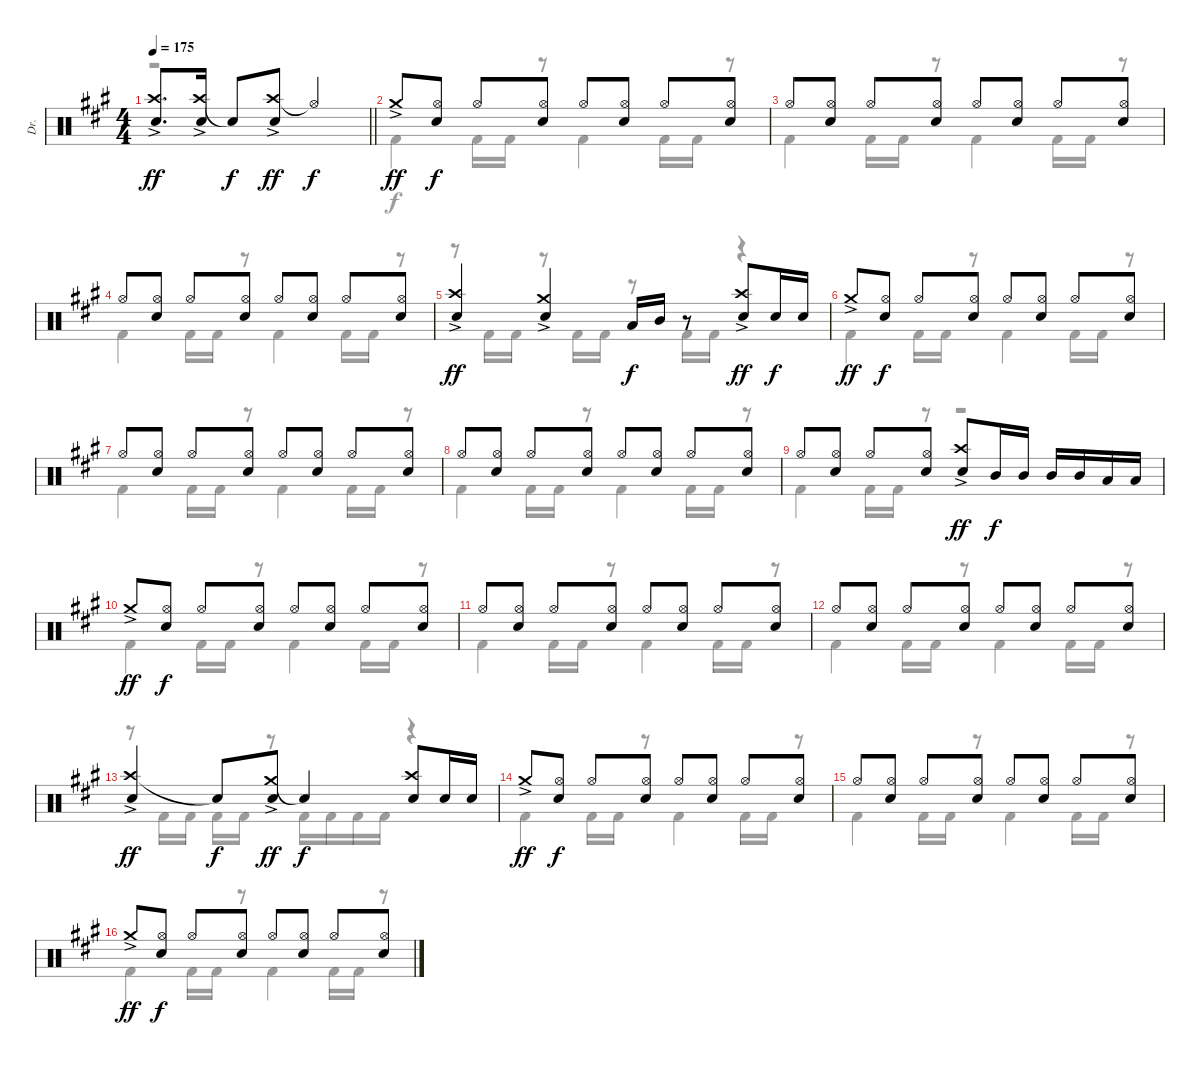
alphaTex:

\track ("Dr." "Dr.") {instrument percussion}
\staff {score}
\articulation defaults
\voice
\ts (4 4)
\tempo 175
\clef neutral
\barLineRight lightlight
\ks f#minor
("Crash high (hit)"{ac} "Electric Snare (hit)").8{d dy ff} ("Crash high (hit)"{ac} "Electric Snare (hit)").16 "Snare (hit)"{t}.8{dy f} ("Crash high (hit)"{ac} "Electric Snare (hit)").8{dy ff} "Hi-Hat (open)"{t}.2{dy f} |
"Crash medium (hit)"{ac}.8{dy ff} ("Hi-Hat (open)" "Electric Snare (hit)").8{dy f} "Hi-Hat (open)".8 ("Hi-Hat (open)" "Electric Snare (hit)").8 "Hi-Hat (open)".8 ("Hi-Hat (open)" "Electric Snare (hit)").8 "Hi-Hat (open)".8 ("Hi-Hat (open)" "Electric Snare (hit)").8 |
"Hi-Hat (open)".8 ("Hi-Hat (open)" "Electric Snare (hit)").8 "Hi-Hat (open)".8 ("Hi-Hat (open)" "Electric Snare (hit)").8 "Hi-Hat (open)".8 ("Hi-Hat (open)" "Electric Snare (hit)").8 "Hi-Hat (open)".8 ("Hi-Hat (open)" "Electric Snare (hit)").8 |
"Hi-Hat (open)".8 ("Hi-Hat (open)" "Electric Snare (hit)").8 "Hi-Hat (open)".8 ("Hi-Hat (open)" "Electric Snare (hit)").8 "Hi-Hat (open)".8 ("Hi-Hat (open)" "Electric Snare (hit)").8 "Hi-Hat (open)".8 ("Hi-Hat (open)" "Electric Snare (hit)").8 |
("Crash high (hit)"{ac} "Electric Snare (hit)").4{dy ff} ("Crash medium (hit)"{ac} "Electric Snare (hit)").4 "Low Tom (hit)".16{dy f} "Mid Tom (hit)".16 r.8 ("Crash high (hit)"{ac} "Electric Snare (hit)").8{dy ff} "Electric Snare (hit)".16{dy f} "Electric Snare (hit)".16 |
"Crash medium (hit)"{ac}.8{dy ff} ("Hi-Hat (open)" "Electric Snare (hit)").8{dy f} "Hi-Hat (open)".8 ("Hi-Hat (open)" "Electric Snare (hit)").8 "Hi-Hat (open)".8 ("Hi-Hat (open)" "Electric Snare (hit)").8 "Hi-Hat (open)".8 ("Hi-Hat (open)" "Electric Snare (hit)").8 |
"Hi-Hat (open)".8 ("Hi-Hat (open)" "Electric Snare (hit)").8 "Hi-Hat (open)".8 ("Hi-Hat (open)" "Electric Snare (hit)").8 "Hi-Hat (open)".8 ("Hi-Hat (open)" "Electric Snare (hit)").8 "Hi-Hat (open)".8 ("Hi-Hat (open)" "Electric Snare (hit)").8 |
"Hi-Hat (open)".8 ("Hi-Hat (open)" "Electric Snare (hit)").8 "Hi-Hat (open)".8 ("Hi-Hat (open)" "Electric Snare (hit)").8 "Hi-Hat (open)".8 ("Hi-Hat (open)" "Electric Snare (hit)").8 "Hi-Hat (open)".8 ("Hi-Hat (open)" "Electric Snare (hit)").8 |
"Hi-Hat (open)".8 ("Hi-Hat (open)" "Electric Snare (hit)").8 "Hi-Hat (open)".8 ("Hi-Hat (open)" "Electric Snare (hit)").8 ("Crash high (hit)"{ac} "Electric Snare (hit)").8{dy ff} "Mid Tom (hit)".16{dy f} "Mid Tom (hit)".16 "Mid Tom (hit)".16 "Mid Tom (hit)".16 "Low Tom (hit)".16 "Low Tom (hit)".16 |
"Crash medium (hit)"{ac}.8{dy ff} ("Hi-Hat (open)" "Electric Snare (hit)").8{dy f} "Hi-Hat (open)".8 ("Hi-Hat (open)" "Electric Snare (hit)").8 "Hi-Hat (open)".8 ("Hi-Hat (open)" "Electric Snare (hit)").8 "Hi-Hat (open)".8 ("Hi-Hat (open)" "Electric Snare (hit)").8 |
"Hi-Hat (open)".8 ("Hi-Hat (open)" "Electric Snare (hit)").8 "Hi-Hat (open)".8 ("Hi-Hat (open)" "Electric Snare (hit)").8 "Hi-Hat (open)".8 ("Hi-Hat (open)" "Electric Snare (hit)").8 "Hi-Hat (open)".8 ("Hi-Hat (open)" "Electric Snare (hit)").8 |
"Hi-Hat (open)".8 ("Hi-Hat (open)" "Electric Snare (hit)").8 "Hi-Hat (open)".8 ("Hi-Hat (open)" "Electric Snare (hit)").8 "Hi-Hat (open)".8 ("Hi-Hat (open)" "Electric Snare (hit)").8 "Hi-Hat (open)".8 ("Hi-Hat (open)" "Electric Snare (hit)").8 |
("Crash high (hit)"{ac} "Electric Snare (hit)").4{dy ff} "Snare (hit)"{t}.8{dy f} ("Crash medium (hit)"{ac} "Electric Snare (hit)").8{dy ff} "Snare (hit)"{t}.4{dy f} ("Crash high (hit)" "Electric Snare (hit)").8 "Electric Snare (hit)".16 "Electric Snare (hit)".16 |
"Crash medium (hit)"{ac}.8{dy ff} ("Hi-Hat (open)" "Electric Snare (hit)").8{dy f} "Hi-Hat (open)".8 ("Hi-Hat (open)" "Electric Snare (hit)").8 "Hi-Hat (open)".8 ("Hi-Hat (open)" "Electric Snare (hit)").8 "Hi-Hat (open)".8 ("Hi-Hat (open)" "Electric Snare (hit)").8 |
"Hi-Hat (open)".8 ("Hi-Hat (open)" "Electric Snare (hit)").8 "Hi-Hat (open)".8 ("Hi-Hat (open)" "Electric Snare (hit)").8 "Hi-Hat (open)".8 ("Hi-Hat (open)" "Electric Snare (hit)").8 "Hi-Hat (open)".8 ("Hi-Hat (open)" "Electric Snare (hit)").8 |
"Crash medium (hit)"{ac}.8{dy ff} ("Hi-Hat (open)" "Electric Snare (hit)").8{dy f} "Hi-Hat (open)".8 ("Hi-Hat (open)" "Electric Snare (hit)").8 "Hi-Hat (open)".8 ("Hi-Hat (open)" "Electric Snare (hit)").8 "Hi-Hat (open)".8 ("Hi-Hat (open)" "Electric Snare (hit)").8
\voice
\clef neutral
\ottava regular
\simile none
\barLineRight lightlight
\ks f#minor
r.1{dy f} |
"Kick (hit) 2".4 "Kick (hit) 2".16 "Kick (hit) 2".16 r.8 "Kick (hit) 2".4 "Kick (hit) 2".16 "Kick (hit) 2".16 r.8 |
"Kick (hit) 2".4 "Kick (hit) 2".16 "Kick (hit) 2".16 r.8 "Kick (hit) 2".4 "Kick (hit) 2".16 "Kick (hit) 2".16 r.8 |
"Kick (hit) 2".4 "Kick (hit) 2".16 "Kick (hit) 2".16 r.8 "Kick (hit) 2".4 "Kick (hit) 2".16 "Kick (hit) 2".16 r.8 |
r.8 "Kick (hit) 2".16 "Kick (hit) 2".16 r.8 "Kick (hit) 2".16 "Kick (hit) 2".16 r.8 "Kick (hit) 2".16 "Kick (hit) 2".16 r.4 |
"Kick (hit) 2".4 "Kick (hit) 2".16 "Kick (hit) 2".16 r.8 "Kick (hit) 2".4 "Kick (hit) 2".16 "Kick (hit) 2".16 r.8 |
"Kick (hit) 2".4 "Kick (hit) 2".16 "Kick (hit) 2".16 r.8 "Kick (hit) 2".4 "Kick (hit) 2".16 "Kick (hit) 2".16 r.8 |
"Kick (hit) 2".4 "Kick (hit) 2".16 "Kick (hit) 2".16 r.8 "Kick (hit) 2".4 "Kick (hit) 2".16 "Kick (hit) 2".16 r.8 |
"Kick (hit) 2".4 "Kick (hit) 2".16 "Kick (hit) 2".16 r.8 r.2 |
"Kick (hit) 2".4 "Kick (hit) 2".16 "Kick (hit) 2".16 r.8 "Kick (hit) 2".4 "Kick (hit) 2".16 "Kick (hit) 2".16 r.8 |
"Kick (hit) 2".4 "Kick (hit) 2".16 "Kick (hit) 2".16 r.8 "Kick (hit) 2".4 "Kick (hit) 2".16 "Kick (hit) 2".16 r.8 |
"Kick (hit) 2".4 "Kick (hit) 2".16 "Kick (hit) 2".16 r.8 "Kick (hit) 2".4 "Kick (hit) 2".16 "Kick (hit) 2".16 r.8 |
r.8 "Kick (hit) 2".16 "Kick (hit) 2".16 "Kick (hit) 2".16 "Kick (hit) 2".16 r.8 "Kick (hit) 2".16 "Kick (hit) 2".16 "Kick (hit) 2".16 "Kick (hit) 2".16 r.4 |
"Kick (hit) 2".4 "Kick (hit) 2".16 "Kick (hit) 2".16 r.8 "Kick (hit) 2".4 "Kick (hit) 2".16 "Kick (hit) 2".16 r.8 |
"Kick (hit) 2".4 "Kick (hit) 2".16 "Kick (hit) 2".16 r.8 "Kick (hit) 2".4 "Kick (hit) 2".16 "Kick (hit) 2".16 r.8 |
"Kick (hit) 2".4 "Kick (hit) 2".16 "Kick (hit) 2".16 r.8 "Kick (hit) 2".4 "Kick (hit) 2".16 "Kick (hit) 2".16 r.8
